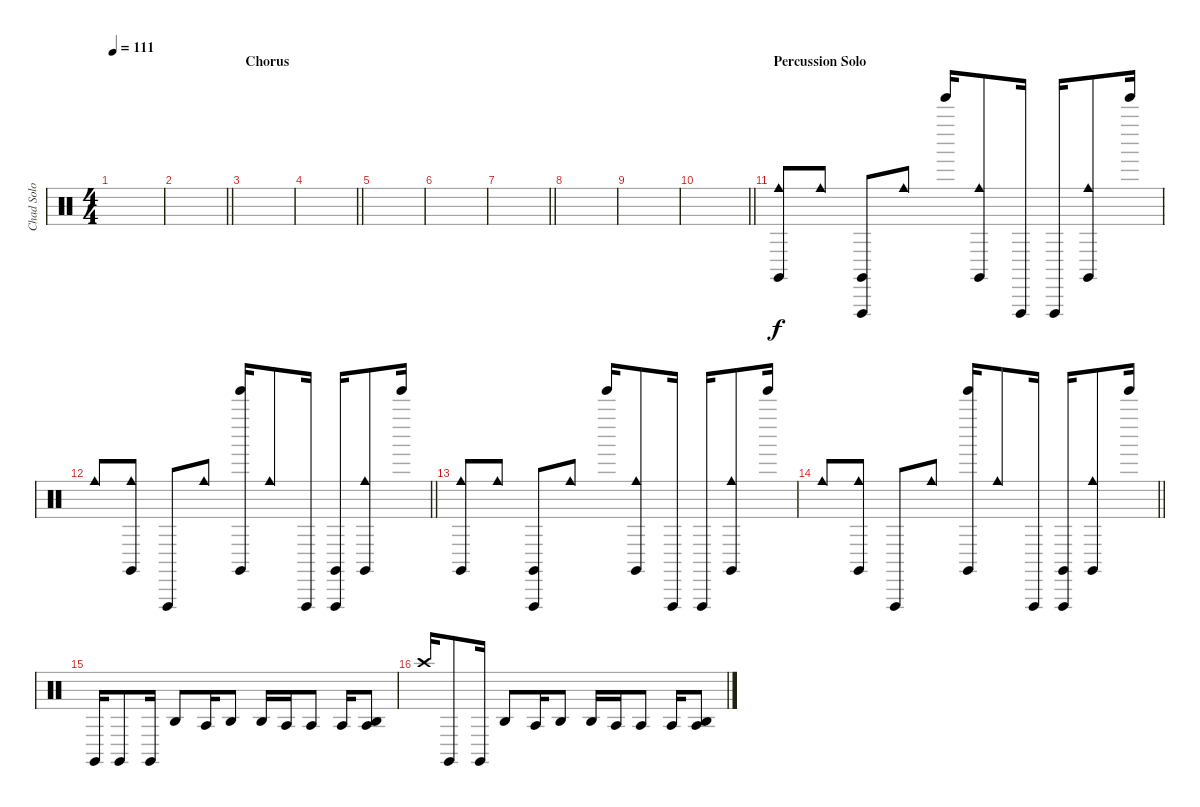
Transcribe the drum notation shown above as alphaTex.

\track ("Chad Solo" "Chad Solo") {instrument percussion}
\staff {score}
\articulation defaults
\ts (4 4)
\tempo 111
\clef neutral
\ks c
|
\barLineRight lightlight
|
\section ("" "Chorus")
|
\barLineRight lightlight
|
|
|
\barLineRight lightlight
|
|
|
\barLineRight lightlight
|
\section ("" "Percussion Solo")
("Cowbell medium (hit)" "Claves (hit)").8 "Cowbell medium (hit)".8 ("Vibraslap (hit)" "Claves (hit)").8 "Cowbell medium (hit)".8 "Tinkle Bell (hit)".16 ("Cowbell medium (hit)" "Claves (hit)").8 "Vibraslap (hit)".16 "Vibraslap (hit)".16 ("Cowbell medium (hit)" "Claves (hit)").8 "Tinkle Bell (hit)".16 |
\barLineRight lightlight "Cowbell medium (hit)".8
("Cowbell medium (hit)" "Claves (hit)").8 "Vibraslap (hit)".8 "Cowbell medium (hit)".8 ("Tinkle Bell (hit)" "Claves (hit)").16 "Cowbell medium (hit)".8 "Vibraslap (hit)".16 ("Vibraslap (hit)" "Claves (hit)").16 ("Cowbell medium (hit)" "Claves (hit)").8 "Tinkle Bell (hit)".16 |
("Cowbell medium (hit)" "Claves (hit)").8 "Cowbell medium (hit)".8 ("Vibraslap (hit)" "Claves (hit)").8 "Cowbell medium (hit)".8 "Tinkle Bell (hit)".16 ("Cowbell medium (hit)" "Claves (hit)").8 "Vibraslap (hit)".16 "Vibraslap (hit)".16 ("Cowbell medium (hit)" "Claves (hit)").8 "Tinkle Bell (hit)".16 |
\barLineRight lightlight "Cowbell medium (hit)".8
("Cowbell medium (hit)" "Claves (hit)").8 "Vibraslap (hit)".8 "Cowbell medium (hit)".8 ("Tinkle Bell (hit)" "Claves (hit)").16 "Cowbell medium (hit)".8 "Vibraslap (hit)".16 ("Vibraslap (hit)" "Claves (hit)").16 ("Cowbell medium (hit)" "Claves (hit)").8 "Tinkle Bell (hit)".16 |
"Claves (hit)".16 "Claves (hit)".8 "Claves (hit)".16 "Agogo high (hit)".8 "Agogo tow (hit)".16 "Agogo high (hit)".8 "Agogo high (hit)".16 "Agogo tow (hit)".16 "Agogo tow (hit)".8 "Agogo tow (hit)".16 ("Agogo high (hit)" "Agogo tow (hit)").8 |
"Crash high (hit)".16 "Claves (hit)".8 "Claves (hit)".16 "Agogo high (hit)".8 "Agogo tow (hit)".16 "Agogo high (hit)".8 "Agogo high (hit)".16 "Agogo tow (hit)".16 "Agogo tow (hit)".8 "Agogo tow (hit)".16 ("Agogo high (hit)" "Agogo tow (hit)").8
